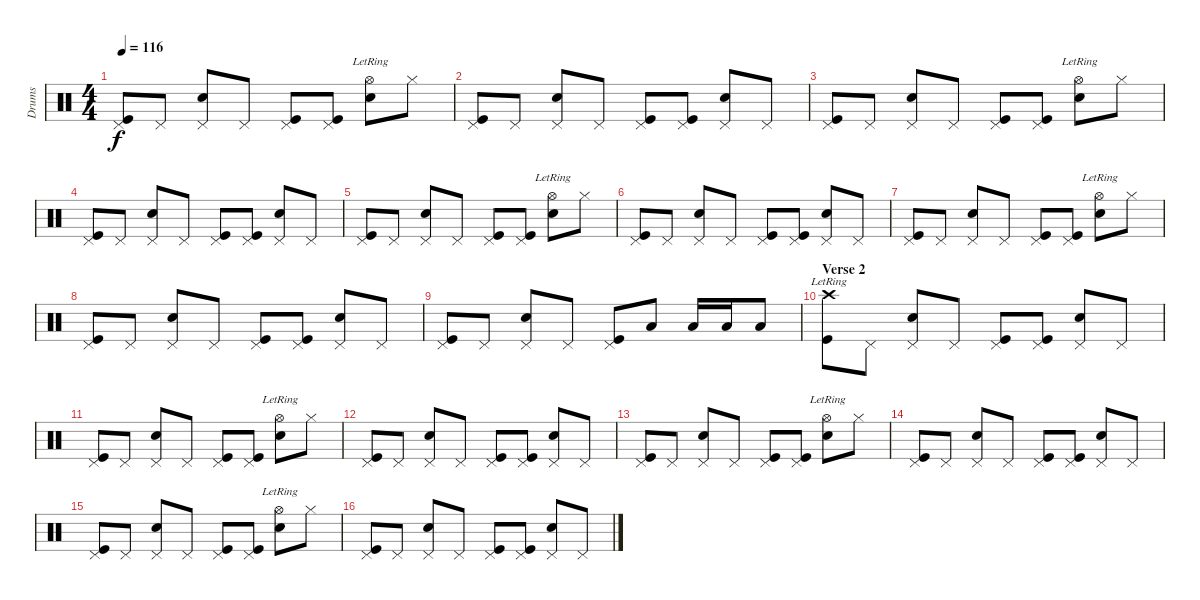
\track ("Drums" "Drums") {instrument percussion}
\staff {score}
\articulation defaults
\ts (4 4)
\tempo 116
\clef neutral
\ks c
("Pedal Hi-Hat (hit)" "Kick (hit)").8{dy f} "Pedal Hi-Hat (hit)".8 ("Pedal Hi-Hat (hit)" "Snare (hit) 2").8 "Pedal Hi-Hat (hit)".8 ("Pedal Hi-Hat (hit)" "Kick (hit)").8 ("Pedal Hi-Hat (hit)" "Kick (hit)").8 ("Hi-Hat (open)"{lr} "Snare (hit) 2").8 "Hi-Hat (closed)".8 |
("Pedal Hi-Hat (hit)" "Kick (hit)").8 "Pedal Hi-Hat (hit)".8 ("Pedal Hi-Hat (hit)" "Snare (hit) 2").8 "Pedal Hi-Hat (hit)".8 ("Pedal Hi-Hat (hit)" "Kick (hit)").8 ("Pedal Hi-Hat (hit)" "Kick (hit)").8 ("Pedal Hi-Hat (hit)" "Snare (hit) 2").8 "Pedal Hi-Hat (hit)".8 |
("Pedal Hi-Hat (hit)" "Kick (hit)").8 "Pedal Hi-Hat (hit)".8 ("Pedal Hi-Hat (hit)" "Snare (hit) 2").8 "Pedal Hi-Hat (hit)".8 ("Pedal Hi-Hat (hit)" "Kick (hit)").8 ("Pedal Hi-Hat (hit)" "Kick (hit)").8 ("Hi-Hat (open)"{lr} "Snare (hit) 2").8 "Hi-Hat (closed)".8 |
("Pedal Hi-Hat (hit)" "Kick (hit)").8 "Pedal Hi-Hat (hit)".8 ("Pedal Hi-Hat (hit)" "Snare (hit) 2").8 "Pedal Hi-Hat (hit)".8 ("Pedal Hi-Hat (hit)" "Kick (hit)").8 ("Pedal Hi-Hat (hit)" "Kick (hit)").8 ("Pedal Hi-Hat (hit)" "Snare (hit) 2").8 "Pedal Hi-Hat (hit)".8 |
("Pedal Hi-Hat (hit)" "Kick (hit)").8 "Pedal Hi-Hat (hit)".8 ("Pedal Hi-Hat (hit)" "Snare (hit) 2").8 "Pedal Hi-Hat (hit)".8 ("Pedal Hi-Hat (hit)" "Kick (hit)").8 ("Pedal Hi-Hat (hit)" "Kick (hit)").8 ("Hi-Hat (open)"{lr} "Snare (hit) 2").8 "Hi-Hat (closed)".8 |
("Pedal Hi-Hat (hit)" "Kick (hit)").8 "Pedal Hi-Hat (hit)".8 ("Pedal Hi-Hat (hit)" "Snare (hit) 2").8 "Pedal Hi-Hat (hit)".8 ("Pedal Hi-Hat (hit)" "Kick (hit)").8 ("Pedal Hi-Hat (hit)" "Kick (hit)").8 ("Pedal Hi-Hat (hit)" "Snare (hit) 2").8 "Pedal Hi-Hat (hit)".8 |
("Pedal Hi-Hat (hit)" "Kick (hit)").8 "Pedal Hi-Hat (hit)".8 ("Pedal Hi-Hat (hit)" "Snare (hit) 2").8 "Pedal Hi-Hat (hit)".8 ("Pedal Hi-Hat (hit)" "Kick (hit)").8 ("Pedal Hi-Hat (hit)" "Kick (hit)").8 ("Hi-Hat (open)"{lr} "Snare (hit) 2").8 "Hi-Hat (closed)".8 |
("Pedal Hi-Hat (hit)" "Kick (hit)").8 "Pedal Hi-Hat (hit)".8 ("Pedal Hi-Hat (hit)" "Snare (hit) 2").8 "Pedal Hi-Hat (hit)".8 ("Pedal Hi-Hat (hit)" "Kick (hit)").8 ("Pedal Hi-Hat (hit)" "Kick (hit)").8 ("Pedal Hi-Hat (hit)" "Snare (hit) 2").8 "Pedal Hi-Hat (hit)".8 |
("Pedal Hi-Hat (hit)" "Kick (hit)").8 "Pedal Hi-Hat (hit)".8 ("Pedal Hi-Hat (hit)" "Snare (hit) 2").8 "Pedal Hi-Hat (hit)".8 ("Pedal Hi-Hat (hit)" "Kick (hit)").8 "Low Tom (hit)".8 "Low Tom (hit)".16 "Low Tom (hit)".16 "Low Tom (hit)".8 |
\section ("" "Verse 2")
("Crash high (hit)"{lr} "Kick (hit)").8 "Pedal Hi-Hat (hit)".8 ("Pedal Hi-Hat (hit)" "Snare (hit) 2").8 "Pedal Hi-Hat (hit)".8 ("Pedal Hi-Hat (hit)" "Kick (hit)").8 ("Pedal Hi-Hat (hit)" "Kick (hit)").8 ("Pedal Hi-Hat (hit)" "Snare (hit) 2").8 "Pedal Hi-Hat (hit)".8 |
("Pedal Hi-Hat (hit)" "Kick (hit)").8 "Pedal Hi-Hat (hit)".8 ("Pedal Hi-Hat (hit)" "Snare (hit) 2").8 "Pedal Hi-Hat (hit)".8 ("Pedal Hi-Hat (hit)" "Kick (hit)").8 ("Pedal Hi-Hat (hit)" "Kick (hit)").8 ("Hi-Hat (open)"{lr} "Snare (hit) 2").8 "Hi-Hat (closed)".8 |
("Pedal Hi-Hat (hit)" "Kick (hit)").8 "Pedal Hi-Hat (hit)".8 ("Pedal Hi-Hat (hit)" "Snare (hit) 2").8 "Pedal Hi-Hat (hit)".8 ("Pedal Hi-Hat (hit)" "Kick (hit)").8 ("Pedal Hi-Hat (hit)" "Kick (hit)").8 ("Pedal Hi-Hat (hit)" "Snare (hit) 2").8 "Pedal Hi-Hat (hit)".8 |
("Pedal Hi-Hat (hit)" "Kick (hit)").8 "Pedal Hi-Hat (hit)".8 ("Pedal Hi-Hat (hit)" "Snare (hit) 2").8 "Pedal Hi-Hat (hit)".8 ("Pedal Hi-Hat (hit)" "Kick (hit)").8 ("Pedal Hi-Hat (hit)" "Kick (hit)").8 ("Hi-Hat (open)"{lr} "Snare (hit) 2").8 "Hi-Hat (closed)".8 |
("Pedal Hi-Hat (hit)" "Kick (hit)").8 "Pedal Hi-Hat (hit)".8 ("Pedal Hi-Hat (hit)" "Snare (hit) 2").8 "Pedal Hi-Hat (hit)".8 ("Pedal Hi-Hat (hit)" "Kick (hit)").8 ("Pedal Hi-Hat (hit)" "Kick (hit)").8 ("Pedal Hi-Hat (hit)" "Snare (hit) 2").8 "Pedal Hi-Hat (hit)".8 |
("Pedal Hi-Hat (hit)" "Kick (hit)").8 "Pedal Hi-Hat (hit)".8 ("Pedal Hi-Hat (hit)" "Snare (hit) 2").8 "Pedal Hi-Hat (hit)".8 ("Pedal Hi-Hat (hit)" "Kick (hit)").8 ("Pedal Hi-Hat (hit)" "Kick (hit)").8 ("Hi-Hat (open)"{lr} "Snare (hit) 2").8 "Hi-Hat (closed)".8 |
("Pedal Hi-Hat (hit)" "Kick (hit)").8 "Pedal Hi-Hat (hit)".8 ("Pedal Hi-Hat (hit)" "Snare (hit) 2").8 "Pedal Hi-Hat (hit)".8 ("Pedal Hi-Hat (hit)" "Kick (hit)").8 ("Pedal Hi-Hat (hit)" "Kick (hit)").8 ("Pedal Hi-Hat (hit)" "Snare (hit) 2").8 "Pedal Hi-Hat (hit)".8
